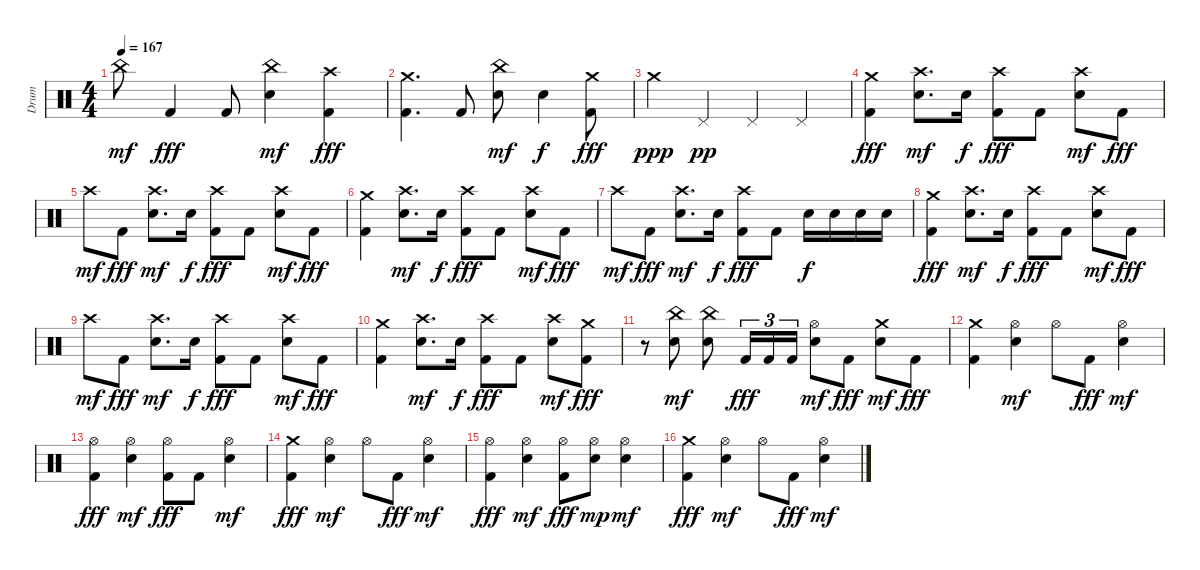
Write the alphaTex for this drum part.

\track ("Drum" "Drum") {instrument percussion}
\staff {score}
\articulation defaults
\ts (4 4)
\tempo 167
\clef neutral
\ks c "China (hit)".8{dy mf} "Kick (hit) 2".4{dy fff} "Kick (hit) 2".8
("China (hit)" "Electric Snare (hit)").4{dy mf} ("Crash high (hit)" "Kick (hit) 2").4{dy fff} |
("Crash medium (hit)" "Kick (hit) 2").4{d} "Kick (hit) 2".8 ("China (hit)" "Electric Snare (hit)").8{dy mf} "Electric Snare (hit)".4{dy f} ("Crash medium (hit)" "Kick (hit) 2").8{dy fff} |
"Crash medium (hit)".4{dy ppp} "Pedal Hi-Hat (hit)".4{dy pp} "Pedal Hi-Hat (hit)".4 "Pedal Hi-Hat (hit)".4 |
("Crash medium (hit)" "Kick (hit) 2").4{dy fff} ("Crash high (hit)" "Electric Snare (hit)").8{d dy mf} "Electric Snare (hit)".16{dy f} ("Crash high (hit)" "Kick (hit) 2").8{dy fff} "Kick (hit) 2".8 ("Crash high (hit)" "Electric Snare (hit)").8{dy mf} "Kick (hit) 2".8{dy fff} |
"Crash high (hit)".8{dy mf} "Kick (hit) 2".8{dy fff} ("Crash high (hit)" "Electric Snare (hit)").8{d dy mf} "Electric Snare (hit)".16{dy f} ("Crash high (hit)" "Kick (hit) 2").8{dy fff} "Kick (hit) 2".8 ("Crash high (hit)" "Electric Snare (hit)").8{dy mf} "Kick (hit) 2".8{dy fff} |
("Crash medium (hit)" "Kick (hit) 2").4 ("Crash high (hit)" "Electric Snare (hit)").8{d dy mf} "Electric Snare (hit)".16{dy f} ("Crash high (hit)" "Kick (hit) 2").8{dy fff} "Kick (hit) 2".8 ("Crash high (hit)" "Electric Snare (hit)").8{dy mf} "Kick (hit) 2".8{dy fff} |
"Crash high (hit)".8{dy mf} "Kick (hit) 2".8{dy fff} ("Crash high (hit)" "Electric Snare (hit)").8{d dy mf} "Electric Snare (hit)".16{dy f} ("Crash high (hit)" "Kick (hit) 2").8{dy fff} "Kick (hit) 2".8 "Electric Snare (hit)".16{dy f} "Electric Snare (hit)".16 "Electric Snare (hit)".16 "Electric Snare (hit)".16 |
("Crash medium (hit)" "Kick (hit) 2").4{dy fff} ("Crash high (hit)" "Electric Snare (hit)").8{d dy mf} "Electric Snare (hit)".16{dy f} ("Crash high (hit)" "Kick (hit) 2").8{dy fff} "Kick (hit) 2".8 ("Crash high (hit)" "Electric Snare (hit)").8{dy mf} "Kick (hit) 2".8{dy fff} |
"Crash high (hit)".8{dy mf} "Kick (hit) 2".8{dy fff} ("Crash high (hit)" "Electric Snare (hit)").8{d dy mf} "Electric Snare (hit)".16{dy f} ("Crash high (hit)" "Kick (hit) 2").8{dy fff} "Kick (hit) 2".8 ("Crash high (hit)" "Electric Snare (hit)").8{dy mf} "Kick (hit) 2".8{dy fff} |
("Crash medium (hit)" "Kick (hit) 2").4 ("Crash high (hit)" "Electric Snare (hit)").8{d dy mf} "Electric Snare (hit)".16{dy f} ("Crash high (hit)" "Kick (hit) 2").8{dy fff} "Kick (hit) 2".8 ("Crash high (hit)" "Electric Snare (hit)").8{dy mf} ("Crash medium (hit)" "Kick (hit) 2").8{dy fff} |
r.8 ("China (hit)" "Electric Snare (hit)").8{dy mf} ("China (hit)" "Electric Snare (hit)").8 "Kick (hit) 2".16{tu (3 2) dy fff} "Kick (hit) 2".16{tu (3 2)} "Kick (hit) 2".16{tu (3 2)} ("Hi-Hat (open)" "Electric Snare (hit)").8{dy mf} "Kick (hit) 2".8{dy fff} ("Crash medium (hit)" "Electric Snare (hit)").8{dy mf} "Kick (hit) 2".8{dy fff} |
("Crash medium (hit)" "Kick (hit) 2").4 ("Hi-Hat (open)" "Electric Snare (hit)").4{dy mf} "Hi-Hat (open)".8 "Kick (hit) 2".8{dy fff} ("Hi-Hat (open)" "Electric Snare (hit)").4{dy mf} |
("Hi-Hat (open)" "Kick (hit) 2").4{dy fff} ("Hi-Hat (open)" "Electric Snare (hit)").4{dy mf} ("Hi-Hat (open)" "Kick (hit) 2").8{dy fff} "Kick (hit) 2".8 ("Hi-Hat (open)" "Electric Snare (hit)").4{dy mf} |
("Crash medium (hit)" "Kick (hit) 2").4{dy fff} ("Hi-Hat (open)" "Electric Snare (hit)").4{dy mf} "Hi-Hat (open)".8 "Kick (hit) 2".8{dy fff} ("Hi-Hat (open)" "Electric Snare (hit)").4{dy mf} |
("Hi-Hat (open)" "Kick (hit) 2").4{dy fff} ("Hi-Hat (open)" "Electric Snare (hit)").4{dy mf} ("Hi-Hat (open)" "Kick (hit) 2").8{dy fff} ("Hi-Hat (open)" "Electric Snare (hit)").8{dy mp} ("Hi-Hat (open)" "Electric Snare (hit)").4{dy mf} |
("Crash medium (hit)" "Kick (hit) 2").4{dy fff} ("Hi-Hat (open)" "Electric Snare (hit)").4{dy mf} "Hi-Hat (open)".8 "Kick (hit) 2".8{dy fff} ("Hi-Hat (open)" "Electric Snare (hit)").4{dy mf}
